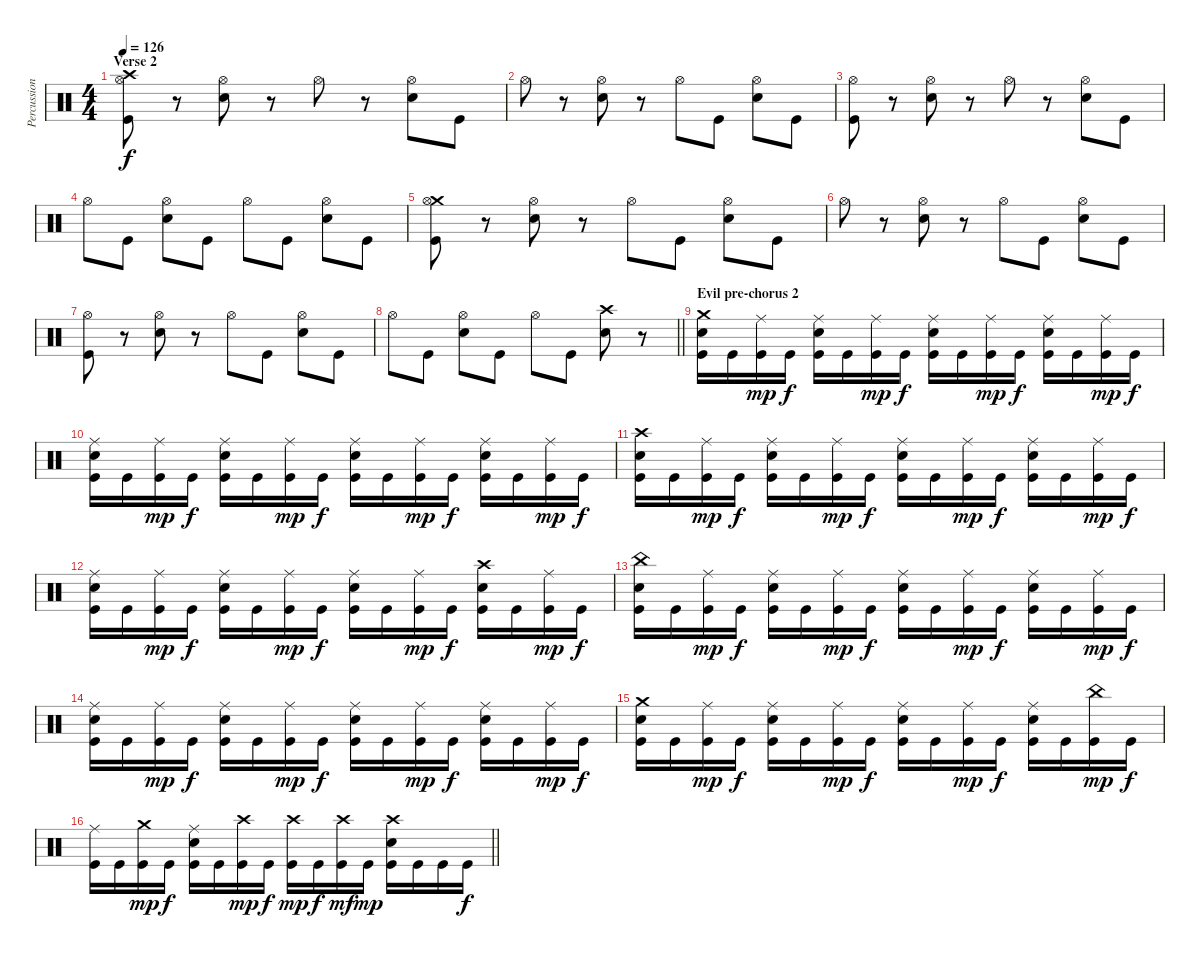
\track ("Percussion" "Percussion") {instrument percussion}
\staff {score}
\articulation defaults
\ts (4 4)
\section ("" "Verse 2")
\tempo 126
\clef neutral
\ks c
("Crash high (hit)" "Hi-Hat (open)" "Kick (hit)").8{dy f} r.8 ("Hi-Hat (open)" "Snare (hit) 2").8 r.8 "Hi-Hat (open)".8 r.8 ("Hi-Hat (open)" "Snare (hit) 2").8 "Kick (hit)".8 |
"Hi-Hat (open)".8 r.8 ("Hi-Hat (open)" "Snare (hit) 2").8 r.8 "Hi-Hat (open)".8 "Kick (hit)".8 ("Hi-Hat (open)" "Snare (hit) 2").8 "Kick (hit)".8 |
("Hi-Hat (open)" "Kick (hit)").8 r.8 ("Hi-Hat (open)" "Snare (hit) 2").8 r.8 "Hi-Hat (open)".8 r.8 ("Hi-Hat (open)" "Snare (hit) 2").8 "Kick (hit)".8 |
"Hi-Hat (open)".8 "Kick (hit)".8 ("Hi-Hat (open)" "Snare (hit) 2").8 "Kick (hit)".8 "Hi-Hat (open)".8 "Kick (hit)".8 ("Hi-Hat (open)" "Snare (hit) 2").8 "Kick (hit)".8 |
("Crash medium (hit)" "Hi-Hat (open)" "Kick (hit)").8 r.8 ("Hi-Hat (open)" "Snare (hit) 2").8 r.8 "Hi-Hat (open)".8 "Kick (hit)".8 ("Hi-Hat (open)" "Snare (hit) 2").8 "Kick (hit)".8 |
"Hi-Hat (open)".8 r.8 ("Hi-Hat (open)" "Snare (hit) 2").8 r.8 "Hi-Hat (open)".8 "Kick (hit)".8 ("Hi-Hat (open)" "Snare (hit) 2").8 "Kick (hit)".8 |
("Hi-Hat (open)" "Kick (hit)").8 r.8 ("Hi-Hat (open)" "Snare (hit) 2").8 r.8 "Hi-Hat (open)".8 "Kick (hit)".8 ("Hi-Hat (open)" "Snare (hit) 2").8 "Kick (hit)".8 |
\barLineRight lightlight "Hi-Hat (open)".8 "Kick (hit)".8
("Hi-Hat (open)" "Snare (hit) 2").8 "Kick (hit)".8 "Hi-Hat (open)".8 "Kick (hit)".8 ("Crash high (hit)" "Snare (hit) 2").8 r.8 |
\section ("" "Evil pre-chorus 2")
("Crash medium (hit)" "Snare (hit) 2" "Kick (hit)").16 "Kick (hit)".16 ("Ride (middle)" "Kick (hit)").16{dy mp} "Kick (hit)".16{dy f} ("Ride (middle)" "Snare (hit) 2" "Kick (hit)").16 "Kick (hit)".16 ("Ride (middle)" "Kick (hit)").16{dy mp} "Kick (hit)".16{dy f} ("Ride (middle)" "Snare (hit) 2" "Kick (hit)").16 "Kick (hit)".16 ("Ride (middle)" "Kick (hit)").16{dy mp} "Kick (hit)".16{dy f} ("Ride (middle)" "Snare (hit) 2" "Kick (hit)").16 "Kick (hit)".16 ("Ride (middle)" "Kick (hit)").16{dy mp} "Kick (hit)".16{dy f} |
("Ride (middle)" "Snare (hit) 2" "Kick (hit)").16 "Kick (hit)".16 ("Ride (middle)" "Kick (hit)").16{dy mp} "Kick (hit)".16{dy f} ("Ride (middle)" "Snare (hit) 2" "Kick (hit)").16 "Kick (hit)".16 ("Ride (middle)" "Kick (hit)").16{dy mp} "Kick (hit)".16{dy f} ("Ride (middle)" "Snare (hit) 2" "Kick (hit)").16 "Kick (hit)".16 ("Ride (middle)" "Kick (hit)").16{dy mp} "Kick (hit)".16{dy f} ("Ride (middle)" "Snare (hit) 2" "Kick (hit)").16 "Kick (hit)".16 ("Ride (middle)" "Kick (hit)").16{dy mp} "Kick (hit)".16{dy f} |
("Crash high (hit)" "Snare (hit) 2" "Kick (hit)").16 "Kick (hit)".16 ("Ride (middle)" "Kick (hit)").16{dy mp} "Kick (hit)".16{dy f} ("Ride (middle)" "Snare (hit) 2" "Kick (hit)").16 "Kick (hit)".16 ("Ride (middle)" "Kick (hit)").16{dy mp} "Kick (hit)".16{dy f} ("Ride (middle)" "Snare (hit) 2" "Kick (hit)").16 "Kick (hit)".16 ("Ride (middle)" "Kick (hit)").16{dy mp} "Kick (hit)".16{dy f} ("Ride (middle)" "Snare (hit) 2" "Kick (hit)").16 "Kick (hit)".16 ("Ride (middle)" "Kick (hit)").16{dy mp} "Kick (hit)".16{dy f} |
("Ride (middle)" "Snare (hit) 2" "Kick (hit)").16 "Kick (hit)".16 ("Ride (middle)" "Kick (hit)").16{dy mp} "Kick (hit)".16{dy f} ("Ride (middle)" "Snare (hit) 2" "Kick (hit)").16 "Kick (hit)".16 ("Ride (middle)" "Kick (hit)").16{dy mp} "Kick (hit)".16{dy f} ("Ride (middle)" "Snare (hit) 2" "Kick (hit)").16 "Kick (hit)".16 ("Ride (middle)" "Kick (hit)").16{dy mp} "Kick (hit)".16{dy f} ("Crash high (hit)" "Snare (hit) 2" "Kick (hit)").16 "Kick (hit)".16 ("Ride (middle)" "Kick (hit)").16{dy mp} "Kick (hit)".16{dy f} |
("China (hit)" "Snare (hit) 2" "Kick (hit)").16 "Kick (hit)".16 ("Ride (middle)" "Kick (hit)").16{dy mp} "Kick (hit)".16{dy f} ("Ride (middle)" "Snare (hit) 2" "Kick (hit)").16 "Kick (hit)".16 ("Ride (middle)" "Kick (hit)").16{dy mp} "Kick (hit)".16{dy f} ("Ride (middle)" "Snare (hit) 2" "Kick (hit)").16 "Kick (hit)".16 ("Ride (middle)" "Kick (hit)").16{dy mp} "Kick (hit)".16{dy f} ("Ride (middle)" "Snare (hit) 2" "Kick (hit)").16 "Kick (hit)".16 ("Ride (middle)" "Kick (hit)").16{dy mp} "Kick (hit)".16{dy f} |
("Ride (middle)" "Snare (hit) 2" "Kick (hit)").16 "Kick (hit)".16 ("Ride (middle)" "Kick (hit)").16{dy mp} "Kick (hit)".16{dy f} ("Ride (middle)" "Snare (hit) 2" "Kick (hit)").16 "Kick (hit)".16 ("Ride (middle)" "Kick (hit)").16{dy mp} "Kick (hit)".16{dy f} ("Ride (middle)" "Snare (hit) 2" "Kick (hit)").16 "Kick (hit)".16 ("Ride (middle)" "Kick (hit)").16{dy mp} "Kick (hit)".16{dy f} ("Ride (middle)" "Snare (hit) 2" "Kick (hit)").16 "Kick (hit)".16 ("Ride (middle)" "Kick (hit)").16{dy mp} "Kick (hit)".16{dy f} |
("Crash medium (hit)" "Snare (hit) 2" "Kick (hit)").16 "Kick (hit)".16 ("Ride (middle)" "Kick (hit)").16{dy mp} "Kick (hit)".16{dy f} ("Ride (middle)" "Snare (hit) 2" "Kick (hit)").16 "Kick (hit)".16 ("Ride (middle)" "Kick (hit)").16{dy mp} "Kick (hit)".16{dy f} ("Ride (middle)" "Snare (hit) 2" "Kick (hit)").16 "Kick (hit)".16 ("Ride (middle)" "Kick (hit)").16{dy mp} "Kick (hit)".16{dy f} ("Ride (middle)" "Snare (hit) 2" "Kick (hit)").16 "Kick (hit)".16 ("China (hit)" "Kick (hit)").16{dy mp} "Kick (hit)".16{dy f} |
\barLineRight lightlight
("Ride (middle)" "Kick (hit)").16 "Kick (hit)".16 ("Crash medium (hit)" "Kick (hit)").16{dy mp} "Kick (hit)".16{dy f} ("Ride (middle)" "Snare (hit) 2" "Kick (hit)").16 "Kick (hit)".16 ("Crash high (hit)" "Kick (hit)").16{dy mp} "Kick (hit)".16{dy f} ("Crash high (hit)" "Kick (hit)").16{dy mp} "Kick (hit)".16{dy f} ("Crash high (hit)" "Kick (hit)").16{dy mf} "Kick (hit)".16{dy mp} ("Crash high (hit)" "Snare (hit) 2" "Kick (hit)").16 "Kick (hit)".16 "Kick (hit)".16 "Kick (hit)".16{dy f}
